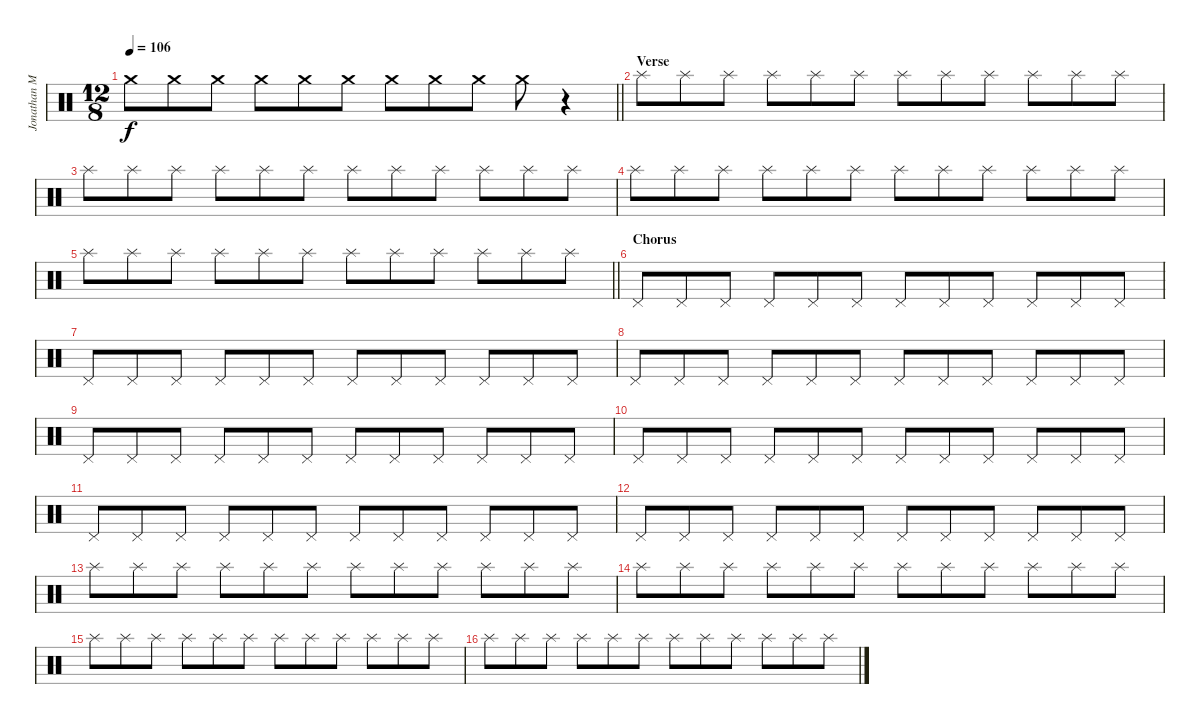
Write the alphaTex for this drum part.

\track ("Jonathan Mover (Studio Drummer)" "Jonathan M") {instrument percussion}
\staff {score}
\articulation defaults
\ts (12 8)
\tempo 106
\clef neutral
\barLineRight lightlight
\ks c "Crash medium (hit)".8{dy f} "Crash medium (hit)".8 "Crash medium (hit)".8 "Crash medium (hit)".8 "Crash medium (hit)".8 "Crash medium (hit)".8 "Crash medium (hit)".8 "Crash medium (hit)".8 "Crash medium (hit)".8 "Crash medium (hit)".8
r.4 |
\section ("" "Verse")
"Splash (hit)".8 "Splash (hit)".8 "Splash (hit)".8 "Splash (hit)".8 "Splash (hit)".8 "Splash (hit)".8 "Splash (hit)".8 "Splash (hit)".8 "Splash (hit)".8 "Splash (hit)".8 "Splash (hit)".8 "Splash (hit)".8 |
"Splash (hit)".8 "Splash (hit)".8 "Splash (hit)".8 "Splash (hit)".8 "Splash (hit)".8 "Splash (hit)".8 "Splash (hit)".8 "Splash (hit)".8 "Splash (hit)".8 "Splash (hit)".8 "Splash (hit)".8 "Splash (hit)".8 |
"Splash (hit)".8 "Splash (hit)".8 "Splash (hit)".8 "Splash (hit)".8 "Splash (hit)".8 "Splash (hit)".8 "Splash (hit)".8 "Splash (hit)".8 "Splash (hit)".8 "Splash (hit)".8 "Splash (hit)".8 "Splash (hit)".8 |
\barLineRight lightlight "Splash (hit)".8 "Splash (hit)".8 "Splash (hit)".8 "Splash (hit)".8 "Splash (hit)".8 "Splash (hit)".8 "Splash (hit)".8 "Splash (hit)".8 "Splash (hit)".8 "Splash (hit)".8 "Splash (hit)".8 "Splash (hit)".8
|
\section ("" "Chorus")
"Pedal Hi-Hat (hit)".8 "Pedal Hi-Hat (hit)".8 "Pedal Hi-Hat (hit)".8 "Pedal Hi-Hat (hit)".8 "Pedal Hi-Hat (hit)".8 "Pedal Hi-Hat (hit)".8 "Pedal Hi-Hat (hit)".8 "Pedal Hi-Hat (hit)".8 "Pedal Hi-Hat (hit)".8 "Pedal Hi-Hat (hit)".8 "Pedal Hi-Hat (hit)".8 "Pedal Hi-Hat (hit)".8 |
"Pedal Hi-Hat (hit)".8 "Pedal Hi-Hat (hit)".8 "Pedal Hi-Hat (hit)".8 "Pedal Hi-Hat (hit)".8 "Pedal Hi-Hat (hit)".8 "Pedal Hi-Hat (hit)".8 "Pedal Hi-Hat (hit)".8 "Pedal Hi-Hat (hit)".8 "Pedal Hi-Hat (hit)".8 "Pedal Hi-Hat (hit)".8 "Pedal Hi-Hat (hit)".8 "Pedal Hi-Hat (hit)".8 |
"Pedal Hi-Hat (hit)".8 "Pedal Hi-Hat (hit)".8 "Pedal Hi-Hat (hit)".8 "Pedal Hi-Hat (hit)".8 "Pedal Hi-Hat (hit)".8 "Pedal Hi-Hat (hit)".8 "Pedal Hi-Hat (hit)".8 "Pedal Hi-Hat (hit)".8 "Pedal Hi-Hat (hit)".8 "Pedal Hi-Hat (hit)".8 "Pedal Hi-Hat (hit)".8 "Pedal Hi-Hat (hit)".8 |
"Pedal Hi-Hat (hit)".8 "Pedal Hi-Hat (hit)".8 "Pedal Hi-Hat (hit)".8 "Pedal Hi-Hat (hit)".8 "Pedal Hi-Hat (hit)".8 "Pedal Hi-Hat (hit)".8 "Pedal Hi-Hat (hit)".8 "Pedal Hi-Hat (hit)".8 "Pedal Hi-Hat (hit)".8 "Pedal Hi-Hat (hit)".8 "Pedal Hi-Hat (hit)".8 "Pedal Hi-Hat (hit)".8 |
"Pedal Hi-Hat (hit)".8 "Pedal Hi-Hat (hit)".8 "Pedal Hi-Hat (hit)".8 "Pedal Hi-Hat (hit)".8 "Pedal Hi-Hat (hit)".8 "Pedal Hi-Hat (hit)".8 "Pedal Hi-Hat (hit)".8 "Pedal Hi-Hat (hit)".8 "Pedal Hi-Hat (hit)".8 "Pedal Hi-Hat (hit)".8 "Pedal Hi-Hat (hit)".8 "Pedal Hi-Hat (hit)".8 |
"Pedal Hi-Hat (hit)".8 "Pedal Hi-Hat (hit)".8 "Pedal Hi-Hat (hit)".8 "Pedal Hi-Hat (hit)".8 "Pedal Hi-Hat (hit)".8 "Pedal Hi-Hat (hit)".8 "Pedal Hi-Hat (hit)".8 "Pedal Hi-Hat (hit)".8 "Pedal Hi-Hat (hit)".8 "Pedal Hi-Hat (hit)".8 "Pedal Hi-Hat (hit)".8 "Pedal Hi-Hat (hit)".8 |
"Pedal Hi-Hat (hit)".8 "Pedal Hi-Hat (hit)".8 "Pedal Hi-Hat (hit)".8 "Pedal Hi-Hat (hit)".8 "Pedal Hi-Hat (hit)".8 "Pedal Hi-Hat (hit)".8 "Pedal Hi-Hat (hit)".8 "Pedal Hi-Hat (hit)".8 "Pedal Hi-Hat (hit)".8 "Pedal Hi-Hat (hit)".8 "Pedal Hi-Hat (hit)".8 "Pedal Hi-Hat (hit)".8 |
"Splash (hit)".8 "Splash (hit)".8 "Splash (hit)".8 "Splash (hit)".8 "Splash (hit)".8 "Splash (hit)".8 "Splash (hit)".8 "Splash (hit)".8 "Splash (hit)".8 "Splash (hit)".8 "Splash (hit)".8 "Splash (hit)".8 |
"Splash (hit)".8 "Splash (hit)".8 "Splash (hit)".8 "Splash (hit)".8 "Splash (hit)".8 "Splash (hit)".8 "Splash (hit)".8 "Splash (hit)".8 "Splash (hit)".8 "Splash (hit)".8 "Splash (hit)".8 "Splash (hit)".8 |
"Splash (hit)".8 "Splash (hit)".8 "Splash (hit)".8 "Splash (hit)".8 "Splash (hit)".8 "Splash (hit)".8 "Splash (hit)".8 "Splash (hit)".8 "Splash (hit)".8 "Splash (hit)".8 "Splash (hit)".8 "Splash (hit)".8 |
"Splash (hit)".8 "Splash (hit)".8 "Splash (hit)".8 "Splash (hit)".8 "Splash (hit)".8 "Splash (hit)".8 "Splash (hit)".8 "Splash (hit)".8 "Splash (hit)".8 "Splash (hit)".8 "Splash (hit)".8 "Splash (hit)".8
